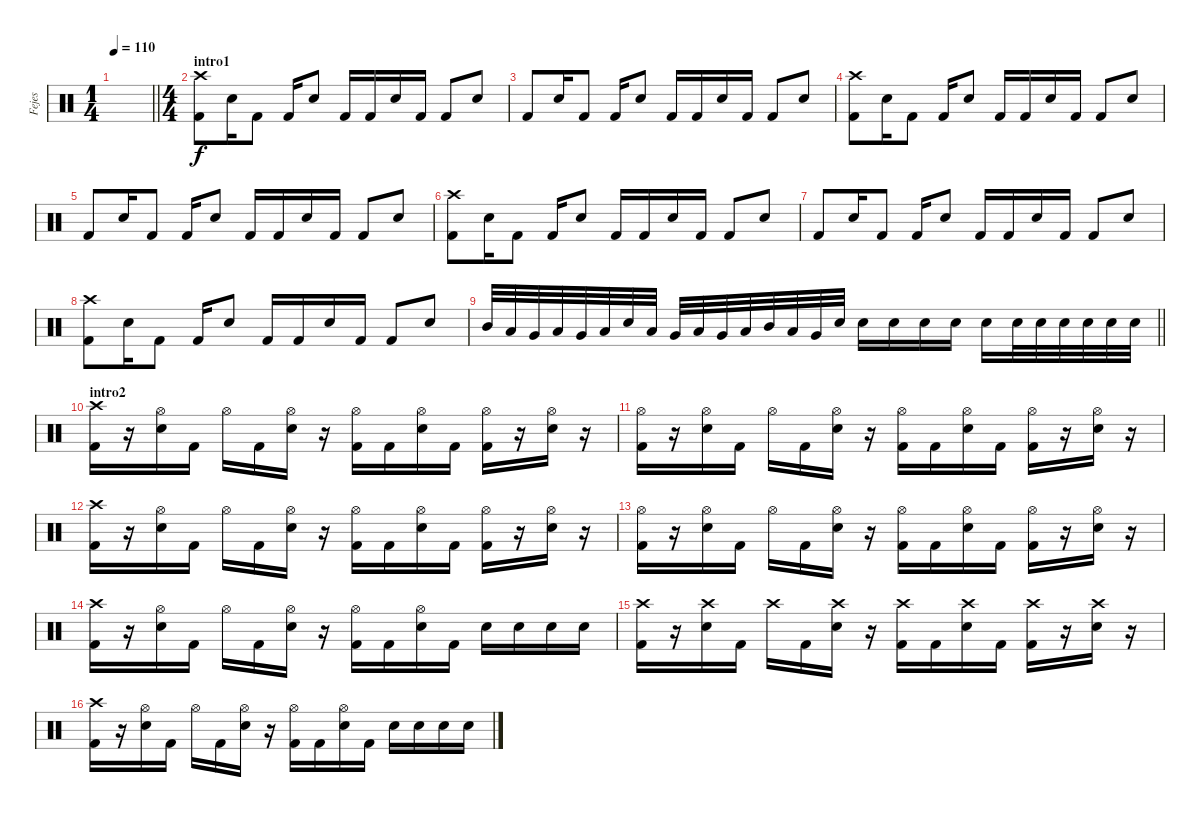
\track ("Fejes" "Fejes") {instrument percussion}
\staff {score}
\articulation defaults
\ts (1 4)
\tempo 110
\clef neutral
\barLineRight lightlight
\ks c
|
\ts (4 4)
\section ("" "intro1")
("Crash high (hit)" "Kick (hit) 2").8 "Snare (hit) 2".16 "Kick (hit) 2".8 "Kick (hit) 2".16 "Snare (hit) 2".8 "Kick (hit) 2".16 "Kick (hit) 2".16 "Snare (hit) 2".16 "Kick (hit) 2".16 "Kick (hit) 2".8 "Snare (hit) 2".8 |
"Kick (hit) 2".8 "Snare (hit) 2".16 "Kick (hit) 2".8 "Kick (hit) 2".16 "Snare (hit) 2".8 "Kick (hit) 2".16 "Kick (hit) 2".16 "Snare (hit) 2".16 "Kick (hit) 2".16 "Kick (hit) 2".8 "Snare (hit) 2".8 |
("Crash high (hit)" "Kick (hit) 2").8 "Snare (hit) 2".16 "Kick (hit) 2".8 "Kick (hit) 2".16 "Snare (hit) 2".8 "Kick (hit) 2".16 "Kick (hit) 2".16 "Snare (hit) 2".16 "Kick (hit) 2".16 "Kick (hit) 2".8 "Snare (hit) 2".8 |
"Kick (hit) 2".8 "Snare (hit) 2".16 "Kick (hit) 2".8 "Kick (hit) 2".16 "Snare (hit) 2".8 "Kick (hit) 2".16 "Kick (hit) 2".16 "Snare (hit) 2".16 "Kick (hit) 2".16 "Kick (hit) 2".8 "Snare (hit) 2".8 |
("Crash high (hit)" "Kick (hit) 2").8 "Snare (hit) 2".16 "Kick (hit) 2".8 "Kick (hit) 2".16 "Snare (hit) 2".8 "Kick (hit) 2".16 "Kick (hit) 2".16 "Snare (hit) 2".16 "Kick (hit) 2".16 "Kick (hit) 2".8 "Snare (hit) 2".8 |
"Kick (hit) 2".8 "Snare (hit) 2".16 "Kick (hit) 2".8 "Kick (hit) 2".16 "Snare (hit) 2".8 "Kick (hit) 2".16 "Kick (hit) 2".16 "Snare (hit) 2".16 "Kick (hit) 2".16 "Kick (hit) 2".8 "Snare (hit) 2".8 |
("Crash high (hit)" "Kick (hit) 2").8 "Snare (hit) 2".16 "Kick (hit) 2".8 "Kick (hit) 2".16 "Snare (hit) 2".8 "Kick (hit) 2".16 "Kick (hit) 2".16 "Snare (hit) 2".16 "Kick (hit) 2".16 "Kick (hit) 2".8 "Snare (hit) 2".8 |
\barLineRight lightlight "Mid Tom (hit)".32 "Low Tom (hit)".32 "Very Low Tom (hit)".32 "Low Tom (hit)".32 "Very Low Tom (hit)".32 "Low Floor Tom (hit)".32 "Snare (hit) 2".32 "Low Tom (hit)".32 "Very Low Tom (hit)".32 "Low Tom (hit)".32 "Very Low Tom (hit)".32 "Low Floor Tom (hit)".32 "Mid Tom (hit)".32 "Low Tom (hit)".32 "Very Low Tom (hit)".32 "Snare (hit) 2".32 "Snare (hit) 2".16 "Snare (hit) 2".16 "Snare (hit) 2".16 "Snare (hit) 2".16 "Snare (hit) 2".16 "Snare (hit) 2".32 "Snare (hit) 2".32 "Snare (hit) 2".32 "Snare (hit) 2".32 "Snare (hit) 2".32 "Snare (hit) 2".32
|
\section ("" "intro2")
("Crash high (hit)" "Kick (hit) 2").16 r.16 ("Hi-Hat (open)" "Snare (hit) 2").16 "Kick (hit) 2".16 "Hi-Hat (open)".16 "Kick (hit) 2".16 ("Hi-Hat (open)" "Snare (hit) 2").16 r.16 ("Hi-Hat (open)" "Kick (hit) 2").16 "Kick (hit) 2".16 ("Hi-Hat (open)" "Snare (hit) 2").16 "Kick (hit) 2".16 ("Hi-Hat (open)" "Kick (hit) 2").16 r.16 ("Hi-Hat (open)" "Snare (hit) 2").16 r.16 |
("Hi-Hat (open)" "Kick (hit) 2").16 r.16 ("Hi-Hat (open)" "Snare (hit) 2").16 "Kick (hit) 2".16 "Hi-Hat (open)".16 "Kick (hit) 2".16 ("Hi-Hat (open)" "Snare (hit) 2").16 r.16 ("Hi-Hat (open)" "Kick (hit) 2").16 "Kick (hit) 2".16 ("Hi-Hat (open)" "Snare (hit) 2").16 "Kick (hit) 2".16 ("Hi-Hat (open)" "Kick (hit) 2").16 r.16 ("Hi-Hat (open)" "Snare (hit) 2").16 r.16 |
("Crash high (hit)" "Kick (hit) 2").16 r.16 ("Hi-Hat (open)" "Snare (hit) 2").16 "Kick (hit) 2".16 "Hi-Hat (open)".16 "Kick (hit) 2".16 ("Hi-Hat (open)" "Snare (hit) 2").16 r.16 ("Hi-Hat (open)" "Kick (hit) 2").16 "Kick (hit) 2".16 ("Hi-Hat (open)" "Snare (hit) 2").16 "Kick (hit) 2".16 ("Hi-Hat (open)" "Kick (hit) 2").16 r.16 ("Hi-Hat (open)" "Snare (hit) 2").16 r.16 |
("Hi-Hat (open)" "Kick (hit) 2").16 r.16 ("Hi-Hat (open)" "Snare (hit) 2").16 "Kick (hit) 2".16 "Hi-Hat (open)".16 "Kick (hit) 2".16 ("Hi-Hat (open)" "Snare (hit) 2").16 r.16 ("Hi-Hat (open)" "Kick (hit) 2").16 "Kick (hit) 2".16 ("Hi-Hat (open)" "Snare (hit) 2").16 "Kick (hit) 2".16 ("Hi-Hat (open)" "Kick (hit) 2").16 r.16 ("Hi-Hat (open)" "Snare (hit) 2").16 r.16 |
("Crash high (hit)" "Kick (hit) 2").16 r.16 ("Hi-Hat (open)" "Snare (hit) 2").16 "Kick (hit) 2".16 "Hi-Hat (open)".16 "Kick (hit) 2".16 ("Hi-Hat (open)" "Snare (hit) 2").16 r.16 ("Hi-Hat (open)" "Kick (hit) 2").16 "Kick (hit) 2".16 ("Hi-Hat (open)" "Snare (hit) 2").16 "Kick (hit) 2".16 "Snare (hit) 2".16 "Snare (hit) 2".16 "Snare (hit) 2".16 "Snare (hit) 2".16 |
("Crash high (hit)" "Kick (hit) 2").16 r.16 ("Crash high (hit)" "Snare (hit) 2").16 "Kick (hit) 2".16 "Crash high (hit)".16 "Kick (hit) 2".16 ("Crash high (hit)" "Snare (hit) 2").16 r.16 ("Crash high (hit)" "Kick (hit) 2").16 "Kick (hit) 2".16 ("Crash high (hit)" "Snare (hit) 2").16 "Kick (hit) 2".16 ("Crash high (hit)" "Kick (hit) 2").16 r.16 ("Crash high (hit)" "Snare (hit) 2").16 r.16 |
("Crash high (hit)" "Kick (hit) 2").16 r.16 ("Hi-Hat (open)" "Snare (hit) 2").16 "Kick (hit) 2".16 "Hi-Hat (open)".16 "Kick (hit) 2".16 ("Hi-Hat (open)" "Snare (hit) 2").16 r.16 ("Hi-Hat (open)" "Kick (hit) 2").16 "Kick (hit) 2".16 ("Hi-Hat (open)" "Snare (hit) 2").16 "Kick (hit) 2".16 "Snare (hit) 2".16 "Snare (hit) 2".16 "Snare (hit) 2".16 "Snare (hit) 2".16
